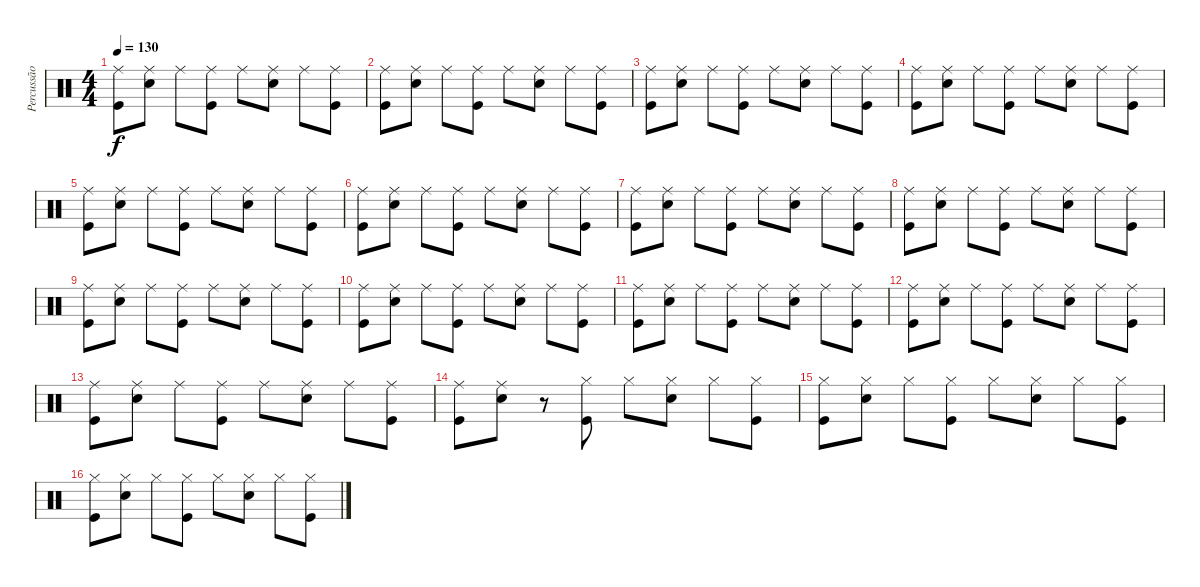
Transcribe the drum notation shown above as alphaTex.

\track ("Percussão" "Percussão") {instrument percussion}
\staff {score}
\articulation defaults
\ts (4 4)
\tempo 130
\clef neutral
\ks c
("Ride (middle)" "Kick (hit)").8{dy f} ("Ride (middle)" "Snare (hit) 2").8 "Ride (middle)".8 ("Ride (middle)" "Kick (hit)").8 "Ride (middle)".8 ("Ride (middle)" "Snare (hit) 2").8 "Ride (middle)".8 ("Ride (middle)" "Kick (hit)").8 |
("Ride (middle)" "Kick (hit)").8 ("Ride (middle)" "Snare (hit) 2").8 "Ride (middle)".8 ("Ride (middle)" "Kick (hit)").8 "Ride (middle)".8 ("Ride (middle)" "Snare (hit) 2").8 "Ride (middle)".8 ("Ride (middle)" "Kick (hit)").8 |
("Ride (middle)" "Kick (hit)").8 ("Ride (middle)" "Snare (hit) 2").8 "Ride (middle)".8 ("Ride (middle)" "Kick (hit)").8 "Ride (middle)".8 ("Ride (middle)" "Snare (hit) 2").8 "Ride (middle)".8 ("Ride (middle)" "Kick (hit)").8 |
("Ride (middle)" "Kick (hit)").8 ("Ride (middle)" "Snare (hit) 2").8 "Ride (middle)".8 ("Ride (middle)" "Kick (hit)").8 "Ride (middle)".8 ("Ride (middle)" "Snare (hit) 2").8 "Ride (middle)".8 ("Ride (middle)" "Kick (hit)").8 |
("Ride (middle)" "Kick (hit)").8 ("Ride (middle)" "Snare (hit) 2").8 "Ride (middle)".8 ("Ride (middle)" "Kick (hit)").8 "Ride (middle)".8 ("Ride (middle)" "Snare (hit) 2").8 "Ride (middle)".8 ("Ride (middle)" "Kick (hit)").8 |
("Ride (middle)" "Kick (hit)").8 ("Ride (middle)" "Snare (hit) 2").8 "Ride (middle)".8 ("Ride (middle)" "Kick (hit)").8 "Ride (middle)".8 ("Ride (middle)" "Snare (hit) 2").8 "Ride (middle)".8 ("Ride (middle)" "Kick (hit)").8 |
("Ride (middle)" "Kick (hit)").8 ("Ride (middle)" "Snare (hit) 2").8 "Ride (middle)".8 ("Ride (middle)" "Kick (hit)").8 "Ride (middle)".8 ("Ride (middle)" "Snare (hit) 2").8 "Ride (middle)".8 ("Ride (middle)" "Kick (hit)").8 |
("Ride (middle)" "Kick (hit)").8 ("Ride (middle)" "Snare (hit) 2").8 "Ride (middle)".8 ("Ride (middle)" "Kick (hit)").8 "Ride (middle)".8 ("Ride (middle)" "Snare (hit) 2").8 "Ride (middle)".8 ("Ride (middle)" "Kick (hit)").8 |
("Ride (middle)" "Kick (hit)").8 ("Ride (middle)" "Snare (hit) 2").8 "Ride (middle)".8 ("Ride (middle)" "Kick (hit)").8 "Ride (middle)".8 ("Ride (middle)" "Snare (hit) 2").8 "Ride (middle)".8 ("Ride (middle)" "Kick (hit)").8 |
("Ride (middle)" "Kick (hit)").8 ("Ride (middle)" "Snare (hit) 2").8 "Ride (middle)".8 ("Ride (middle)" "Kick (hit)").8 "Ride (middle)".8 ("Ride (middle)" "Snare (hit) 2").8 "Ride (middle)".8 ("Ride (middle)" "Kick (hit)").8 |
("Ride (middle)" "Kick (hit)").8 ("Ride (middle)" "Snare (hit) 2").8 "Ride (middle)".8 ("Ride (middle)" "Kick (hit)").8 "Ride (middle)".8 ("Ride (middle)" "Snare (hit) 2").8 "Ride (middle)".8 ("Ride (middle)" "Kick (hit)").8 |
("Ride (middle)" "Kick (hit)").8 ("Ride (middle)" "Snare (hit) 2").8 "Ride (middle)".8 ("Ride (middle)" "Kick (hit)").8 "Ride (middle)".8 ("Ride (middle)" "Snare (hit) 2").8 "Ride (middle)".8 ("Ride (middle)" "Kick (hit)").8 |
("Ride (middle)" "Kick (hit)").8 ("Ride (middle)" "Snare (hit) 2").8 "Ride (middle)".8 ("Ride (middle)" "Kick (hit)").8 "Ride (middle)".8 ("Ride (middle)" "Snare (hit) 2").8 "Ride (middle)".8 ("Ride (middle)" "Kick (hit)").8 |
("Ride (middle)" "Kick (hit)").8 ("Ride (middle)" "Snare (hit) 2").8 r.8 ("Hi-Hat (closed)" "Kick (hit)").8 "Hi-Hat (closed)".8 ("Hi-Hat (closed)" "Snare (hit) 2").8 "Hi-Hat (closed)".8 ("Hi-Hat (closed)" "Kick (hit)").8 |
("Hi-Hat (closed)" "Kick (hit)").8 ("Hi-Hat (closed)" "Snare (hit) 2").8 "Hi-Hat (closed)".8 ("Hi-Hat (closed)" "Kick (hit)").8 "Hi-Hat (closed)".8 ("Hi-Hat (closed)" "Snare (hit) 2").8 "Hi-Hat (closed)".8 ("Hi-Hat (closed)" "Kick (hit)").8 |
("Hi-Hat (closed)" "Kick (hit)").8 ("Hi-Hat (closed)" "Snare (hit) 2").8 "Hi-Hat (closed)".8 ("Hi-Hat (closed)" "Kick (hit)").8 "Hi-Hat (closed)".8 ("Hi-Hat (closed)" "Snare (hit) 2").8 "Hi-Hat (closed)".8 ("Hi-Hat (closed)" "Kick (hit)").8
